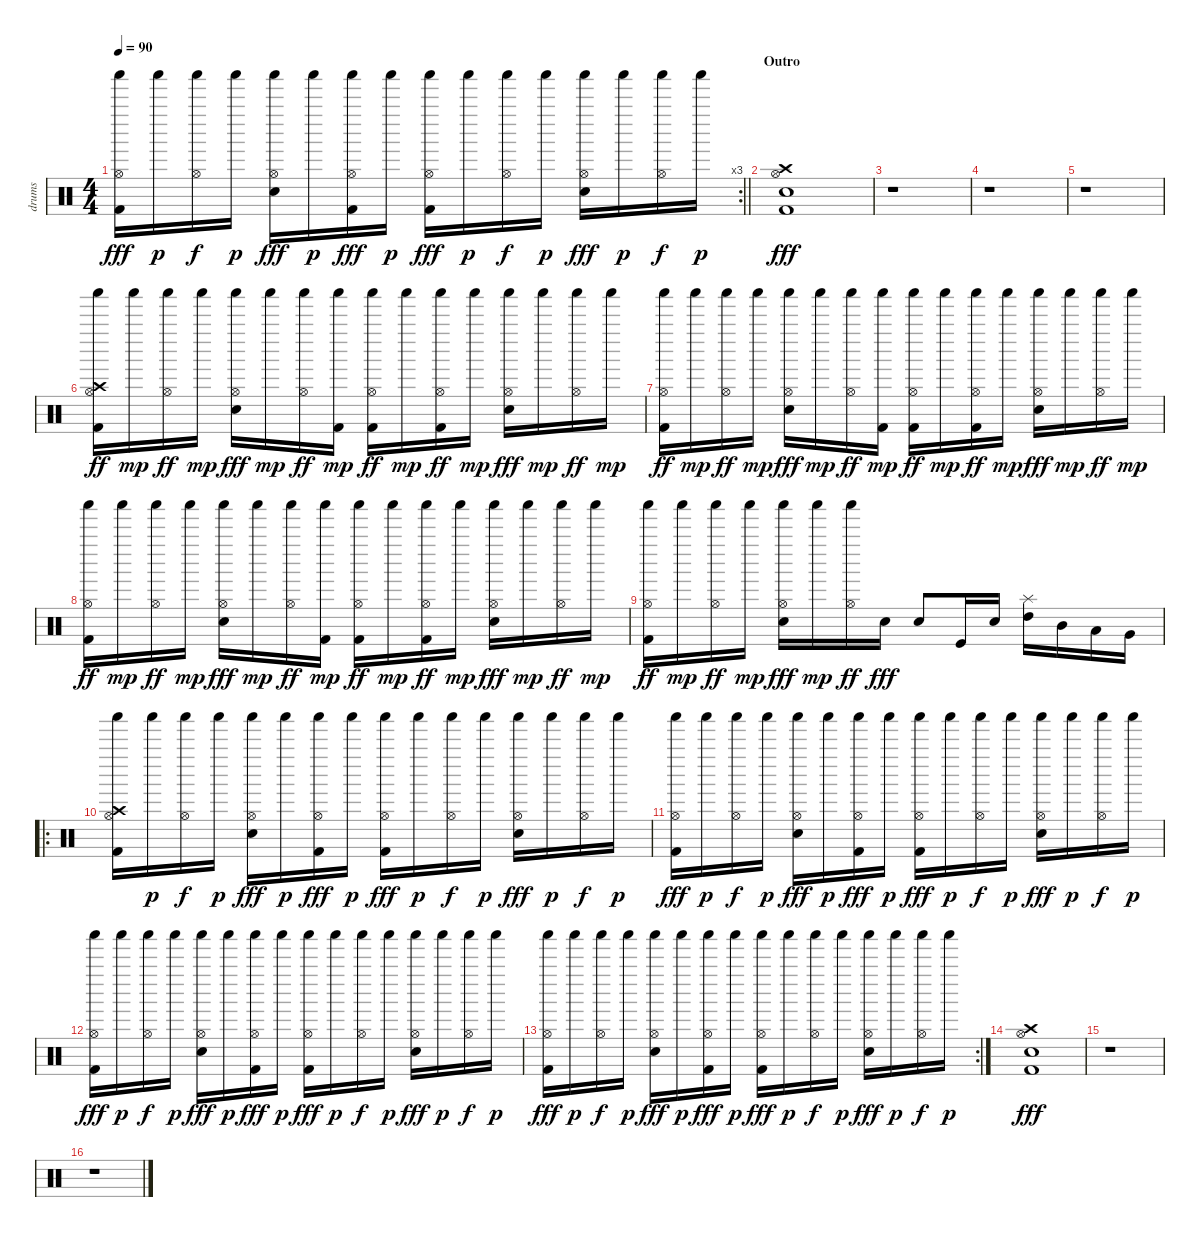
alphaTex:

\track ("drums" "drums") {instrument percussion}
\staff {score}
\articulation defaults
\rc 3
\ts (4 4)
\tempo 90
\clef neutral
\barLineRight lightlight
\ks c
("Kick (hit) 2" "Shaker (hit)" "Hi-Hat (open)").16{dy fff} "Shaker (hit)".16{dy p} ("Shaker (hit)" "Hi-Hat (open)").16{dy f} "Shaker (hit)".16{dy p} ("Shaker (hit)" "Hi-Hat (open)" "Snare (hit) 2").16{dy fff} "Shaker (hit)".16{dy p} ("Kick (hit) 2" "Shaker (hit)" "Hi-Hat (open)").16{dy fff} "Shaker (hit)".16{dy p} ("Kick (hit) 2" "Shaker (hit)" "Hi-Hat (open)").16{dy fff} "Shaker (hit)".16{dy p} ("Shaker (hit)" "Hi-Hat (open)").16{dy f} "Shaker (hit)".16{dy p} ("Shaker (hit)" "Hi-Hat (open)" "Snare (hit) 2").16{dy fff} "Shaker (hit)".16{dy p} ("Shaker (hit)" "Hi-Hat (open)").16{dy f} "Shaker (hit)".16{dy p} |
\section ("" "Outro")
("Kick (hit) 2" "Crash high (hit)" "Hi-Hat (open)" "Snare (hit) 2").1{dy fff} |
r.1 |
r.1 |
r.1 |
("Kick (hit) 2" "Crash high (hit)" "Shaker (hit)" "Hi-Hat (open)").16{dy ff} "Shaker (hit)".16{dy mp} ("Shaker (hit)" "Hi-Hat (open)").16{dy ff} "Shaker (hit)".16{dy mp} ("Shaker (hit)" "Hi-Hat (open)" "Snare (hit) 2").16{dy fff} "Shaker (hit)".16{dy mp} ("Shaker (hit)" "Hi-Hat (open)").16{dy ff} ("Kick (hit) 2" "Shaker (hit)").16{dy mp} ("Kick (hit) 2" "Shaker (hit)" "Hi-Hat (open)").16{dy ff} "Shaker (hit)".16{dy mp} ("Kick (hit) 2" "Shaker (hit)" "Hi-Hat (open)").16{dy ff} "Shaker (hit)".16{dy mp} ("Shaker (hit)" "Hi-Hat (open)" "Snare (hit) 2").16{dy fff} "Shaker (hit)".16{dy mp} ("Shaker (hit)" "Hi-Hat (open)").16{dy ff} "Shaker (hit)".16{dy mp} |
("Kick (hit) 2" "Shaker (hit)" "Hi-Hat (open)").16{dy ff} "Shaker (hit)".16{dy mp} ("Shaker (hit)" "Hi-Hat (open)").16{dy ff} "Shaker (hit)".16{dy mp} ("Shaker (hit)" "Hi-Hat (open)" "Snare (hit) 2").16{dy fff} "Shaker (hit)".16{dy mp} ("Shaker (hit)" "Hi-Hat (open)").16{dy ff} ("Kick (hit) 2" "Shaker (hit)").16{dy mp} ("Kick (hit) 2" "Shaker (hit)" "Hi-Hat (open)").16{dy ff} "Shaker (hit)".16{dy mp} ("Kick (hit) 2" "Shaker (hit)" "Hi-Hat (open)").16{dy ff} "Shaker (hit)".16{dy mp} ("Shaker (hit)" "Hi-Hat (open)" "Snare (hit) 2").16{dy fff} "Shaker (hit)".16{dy mp} ("Shaker (hit)" "Hi-Hat (open)").16{dy ff} "Shaker (hit)".16{dy mp} |
("Kick (hit) 2" "Shaker (hit)" "Hi-Hat (open)").16{dy ff} "Shaker (hit)".16{dy mp} ("Shaker (hit)" "Hi-Hat (open)").16{dy ff} "Shaker (hit)".16{dy mp} ("Shaker (hit)" "Hi-Hat (open)" "Snare (hit) 2").16{dy fff} "Shaker (hit)".16{dy mp} ("Shaker (hit)" "Hi-Hat (open)").16{dy ff} ("Kick (hit) 2" "Shaker (hit)").16{dy mp} ("Kick (hit) 2" "Shaker (hit)" "Hi-Hat (open)").16{dy ff} "Shaker (hit)".16{dy mp} ("Kick (hit) 2" "Shaker (hit)" "Hi-Hat (open)").16{dy ff} "Shaker (hit)".16{dy mp} ("Shaker (hit)" "Hi-Hat (open)" "Snare (hit) 2").16{dy fff} "Shaker (hit)".16{dy mp} ("Shaker (hit)" "Hi-Hat (open)").16{dy ff} "Shaker (hit)".16{dy mp} |
("Kick (hit) 2" "Shaker (hit)" "Hi-Hat (open)").16{dy ff} "Shaker (hit)".16{dy mp} ("Shaker (hit)" "Hi-Hat (open)").16{dy ff} "Shaker (hit)".16{dy mp} ("Shaker (hit)" "Hi-Hat (open)" "Snare (hit) 2").16{dy fff} "Shaker (hit)".16{dy mp} ("Shaker (hit)" "Hi-Hat (open)").16{dy ff} "Electric Snare (hit)".16{dy fff} "Electric Snare (hit)".8 "Kick (hit)".16 "Electric Snare (hit)".16 ("Splash (hit)" "High Tom (hit)").16 "Mid Tom (hit)".16 "Low Tom (hit)".16 "Very Low Tom (hit)".16 |
\ro
("Kick (hit) 2" "Crash high (hit)" "Shaker (hit)" "Hi-Hat (open)").16 "Shaker (hit)".16{dy p} ("Shaker (hit)" "Hi-Hat (open)").16{dy f} "Shaker (hit)".16{dy p} ("Shaker (hit)" "Hi-Hat (open)" "Snare (hit) 2").16{dy fff} "Shaker (hit)".16{dy p} ("Kick (hit) 2" "Shaker (hit)" "Hi-Hat (open)").16{dy fff} "Shaker (hit)".16{dy p} ("Kick (hit) 2" "Shaker (hit)" "Hi-Hat (open)").16{dy fff} "Shaker (hit)".16{dy p} ("Shaker (hit)" "Hi-Hat (open)").16{dy f} "Shaker (hit)".16{dy p} ("Shaker (hit)" "Hi-Hat (open)" "Snare (hit) 2").16{dy fff} "Shaker (hit)".16{dy p} ("Shaker (hit)" "Hi-Hat (open)").16{dy f} "Shaker (hit)".16{dy p} |
("Kick (hit) 2" "Shaker (hit)" "Hi-Hat (open)").16{dy fff} "Shaker (hit)".16{dy p} ("Shaker (hit)" "Hi-Hat (open)").16{dy f} "Shaker (hit)".16{dy p} ("Shaker (hit)" "Hi-Hat (open)" "Snare (hit) 2").16{dy fff} "Shaker (hit)".16{dy p} ("Kick (hit) 2" "Shaker (hit)" "Hi-Hat (open)").16{dy fff} "Shaker (hit)".16{dy p} ("Kick (hit) 2" "Shaker (hit)" "Hi-Hat (open)").16{dy fff} "Shaker (hit)".16{dy p} ("Shaker (hit)" "Hi-Hat (open)").16{dy f} "Shaker (hit)".16{dy p} ("Shaker (hit)" "Hi-Hat (open)" "Snare (hit) 2").16{dy fff} "Shaker (hit)".16{dy p} ("Shaker (hit)" "Hi-Hat (open)").16{dy f} "Shaker (hit)".16{dy p} |
("Kick (hit) 2" "Shaker (hit)" "Hi-Hat (open)").16{dy fff} "Shaker (hit)".16{dy p} ("Shaker (hit)" "Hi-Hat (open)").16{dy f} "Shaker (hit)".16{dy p} ("Shaker (hit)" "Hi-Hat (open)" "Snare (hit) 2").16{dy fff} "Shaker (hit)".16{dy p} ("Kick (hit) 2" "Shaker (hit)" "Hi-Hat (open)").16{dy fff} "Shaker (hit)".16{dy p} ("Kick (hit) 2" "Shaker (hit)" "Hi-Hat (open)").16{dy fff} "Shaker (hit)".16{dy p} ("Shaker (hit)" "Hi-Hat (open)").16{dy f} "Shaker (hit)".16{dy p} ("Shaker (hit)" "Hi-Hat (open)" "Snare (hit) 2").16{dy fff} "Shaker (hit)".16{dy p} ("Shaker (hit)" "Hi-Hat (open)").16{dy f} "Shaker (hit)".16{dy p} |
\rc 2
("Kick (hit) 2" "Shaker (hit)" "Hi-Hat (open)").16{dy fff} "Shaker (hit)".16{dy p} ("Shaker (hit)" "Hi-Hat (open)").16{dy f} "Shaker (hit)".16{dy p} ("Shaker (hit)" "Hi-Hat (open)" "Snare (hit) 2").16{dy fff} "Shaker (hit)".16{dy p} ("Kick (hit) 2" "Shaker (hit)" "Hi-Hat (open)").16{dy fff} "Shaker (hit)".16{dy p} ("Kick (hit) 2" "Shaker (hit)" "Hi-Hat (open)").16{dy fff} "Shaker (hit)".16{dy p} ("Shaker (hit)" "Hi-Hat (open)").16{dy f} "Shaker (hit)".16{dy p} ("Shaker (hit)" "Hi-Hat (open)" "Snare (hit) 2").16{dy fff} "Shaker (hit)".16{dy p} ("Shaker (hit)" "Hi-Hat (open)").16{dy f} "Shaker (hit)".16{dy p} |
("Kick (hit) 2" "Crash high (hit)" "Hi-Hat (open)" "Snare (hit) 2").1{dy fff} |
r.1 |
r.1
